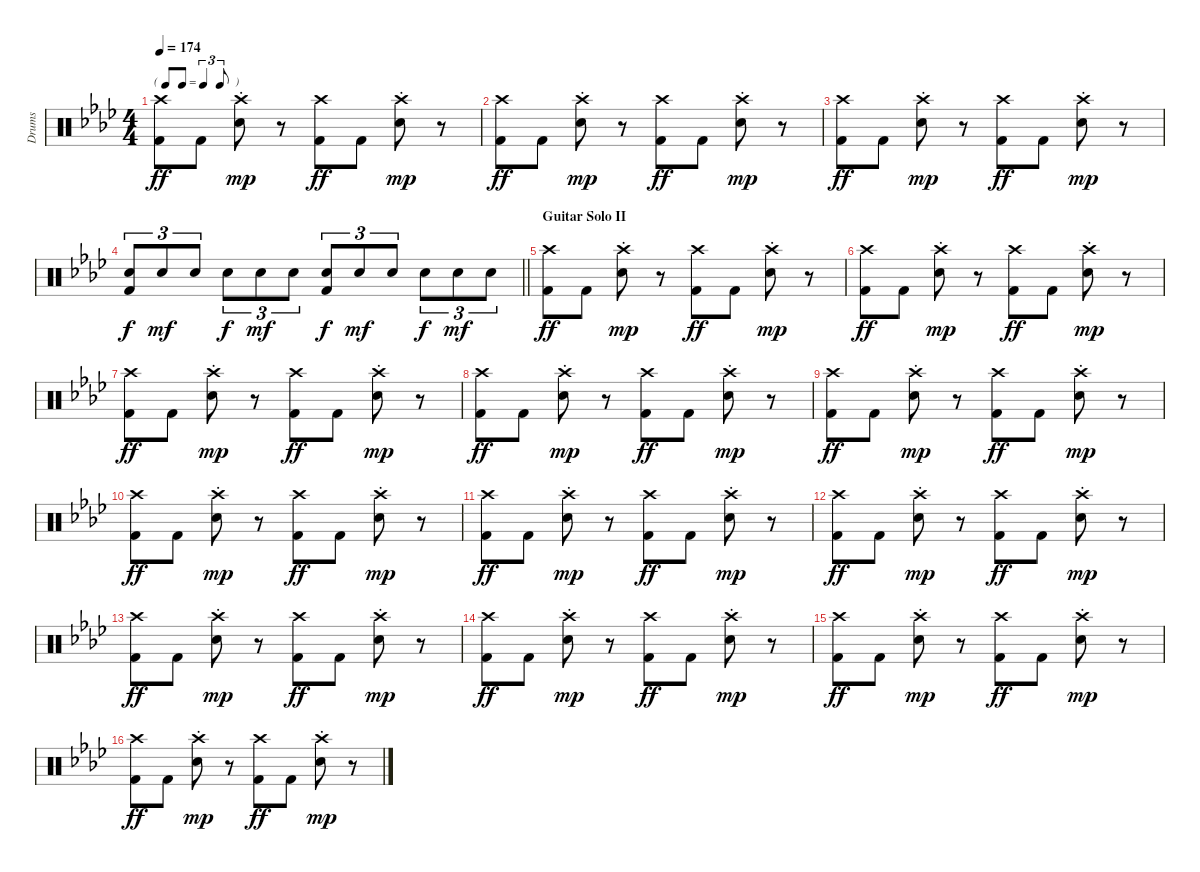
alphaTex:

\track ("Drums" "Drums") {instrument percussion}
\staff {score}
\articulation defaults
\ts (4 4)
\tf triplet8th
\tempo 174
\clef neutral
\ks ab
("Crash high (hit)" "Kick (hit) 2").8{dy ff} "Kick (hit) 2".8 ("Crash high (hit)" "Snare (hit) 2"{st}).8{dy mp} r.8 ("Crash high (hit)" "Kick (hit) 2").8{dy ff} "Kick (hit) 2".8 ("Crash high (hit)" "Snare (hit) 2"{st}).8{dy mp} r.8 |
("Crash high (hit)" "Kick (hit) 2").8{dy ff} "Kick (hit) 2".8 ("Crash high (hit)" "Snare (hit) 2"{st}).8{dy mp} r.8 ("Crash high (hit)" "Kick (hit) 2").8{dy ff} "Kick (hit) 2".8 ("Crash high (hit)" "Snare (hit) 2"{st}).8{dy mp} r.8 |
("Crash high (hit)" "Kick (hit) 2").8{dy ff} "Kick (hit) 2".8 ("Crash high (hit)" "Snare (hit) 2"{st}).8{dy mp} r.8 ("Crash high (hit)" "Kick (hit) 2").8{dy ff} "Kick (hit) 2".8 ("Crash high (hit)" "Snare (hit) 2"{st}).8{dy mp} r.8 |
\barLineRight lightlight
("Snare (hit) 2" "Kick (hit) 2").8{tu (3 2) dy f} "Snare (hit) 2".8{tu (3 2) dy mf} "Snare (hit) 2".8{tu (3 2)} "Snare (hit) 2".8{tu (3 2) dy f} "Snare (hit) 2".8{tu (3 2) dy mf} "Snare (hit) 2".8{tu (3 2)} ("Snare (hit) 2" "Kick (hit) 2").8{tu (3 2) dy f} "Snare (hit) 2".8{tu (3 2) dy mf} "Snare (hit) 2".8{tu (3 2)} "Snare (hit) 2".8{tu (3 2) dy f} "Snare (hit) 2".8{tu (3 2) dy mf} "Snare (hit) 2".8{tu (3 2)} |
\section ("" "Guitar Solo II")
("Crash high (hit)" "Kick (hit) 2").8{dy ff} "Kick (hit) 2".8 ("Crash high (hit)" "Snare (hit) 2"{st}).8{dy mp} r.8 ("Crash high (hit)" "Kick (hit) 2").8{dy ff} "Kick (hit) 2".8 ("Crash high (hit)" "Snare (hit) 2"{st}).8{dy mp} r.8 |
("Crash high (hit)" "Kick (hit) 2").8{dy ff} "Kick (hit) 2".8 ("Crash high (hit)" "Snare (hit) 2"{st}).8{dy mp} r.8 ("Crash high (hit)" "Kick (hit) 2").8{dy ff} "Kick (hit) 2".8 ("Crash high (hit)" "Snare (hit) 2"{st}).8{dy mp} r.8 |
("Crash high (hit)" "Kick (hit) 2").8{dy ff} "Kick (hit) 2".8 ("Crash high (hit)" "Snare (hit) 2"{st}).8{dy mp} r.8 ("Crash high (hit)" "Kick (hit) 2").8{dy ff} "Kick (hit) 2".8 ("Crash high (hit)" "Snare (hit) 2"{st}).8{dy mp} r.8 |
("Crash high (hit)" "Kick (hit) 2").8{dy ff} "Kick (hit) 2".8 ("Crash high (hit)" "Snare (hit) 2"{st}).8{dy mp} r.8 ("Crash high (hit)" "Kick (hit) 2").8{dy ff} "Kick (hit) 2".8 ("Crash high (hit)" "Snare (hit) 2"{st}).8{dy mp} r.8 |
("Crash high (hit)" "Kick (hit) 2").8{dy ff} "Kick (hit) 2".8 ("Crash high (hit)" "Snare (hit) 2"{st}).8{dy mp} r.8 ("Crash high (hit)" "Kick (hit) 2").8{dy ff} "Kick (hit) 2".8 ("Crash high (hit)" "Snare (hit) 2"{st}).8{dy mp} r.8 |
("Crash high (hit)" "Kick (hit) 2").8{dy ff} "Kick (hit) 2".8 ("Crash high (hit)" "Snare (hit) 2"{st}).8{dy mp} r.8 ("Crash high (hit)" "Kick (hit) 2").8{dy ff} "Kick (hit) 2".8 ("Crash high (hit)" "Snare (hit) 2"{st}).8{dy mp} r.8 |
("Crash high (hit)" "Kick (hit) 2").8{dy ff} "Kick (hit) 2".8 ("Crash high (hit)" "Snare (hit) 2"{st}).8{dy mp} r.8 ("Crash high (hit)" "Kick (hit) 2").8{dy ff} "Kick (hit) 2".8 ("Crash high (hit)" "Snare (hit) 2"{st}).8{dy mp} r.8 |
("Crash high (hit)" "Kick (hit) 2").8{dy ff} "Kick (hit) 2".8 ("Crash high (hit)" "Snare (hit) 2"{st}).8{dy mp} r.8 ("Crash high (hit)" "Kick (hit) 2").8{dy ff} "Kick (hit) 2".8 ("Crash high (hit)" "Snare (hit) 2"{st}).8{dy mp} r.8 |
("Crash high (hit)" "Kick (hit) 2").8{dy ff} "Kick (hit) 2".8 ("Crash high (hit)" "Snare (hit) 2"{st}).8{dy mp} r.8 ("Crash high (hit)" "Kick (hit) 2").8{dy ff} "Kick (hit) 2".8 ("Crash high (hit)" "Snare (hit) 2"{st}).8{dy mp} r.8 |
("Crash high (hit)" "Kick (hit) 2").8{dy ff} "Kick (hit) 2".8 ("Crash high (hit)" "Snare (hit) 2"{st}).8{dy mp} r.8 ("Crash high (hit)" "Kick (hit) 2").8{dy ff} "Kick (hit) 2".8 ("Crash high (hit)" "Snare (hit) 2"{st}).8{dy mp} r.8 |
("Crash high (hit)" "Kick (hit) 2").8{dy ff} "Kick (hit) 2".8 ("Crash high (hit)" "Snare (hit) 2"{st}).8{dy mp} r.8 ("Crash high (hit)" "Kick (hit) 2").8{dy ff} "Kick (hit) 2".8 ("Crash high (hit)" "Snare (hit) 2"{st}).8{dy mp} r.8 |
("Crash high (hit)" "Kick (hit) 2").8{dy ff} "Kick (hit) 2".8 ("Crash high (hit)" "Snare (hit) 2"{st}).8{dy mp} r.8 ("Crash high (hit)" "Kick (hit) 2").8{dy ff} "Kick (hit) 2".8 ("Crash high (hit)" "Snare (hit) 2"{st}).8{dy mp} r.8
